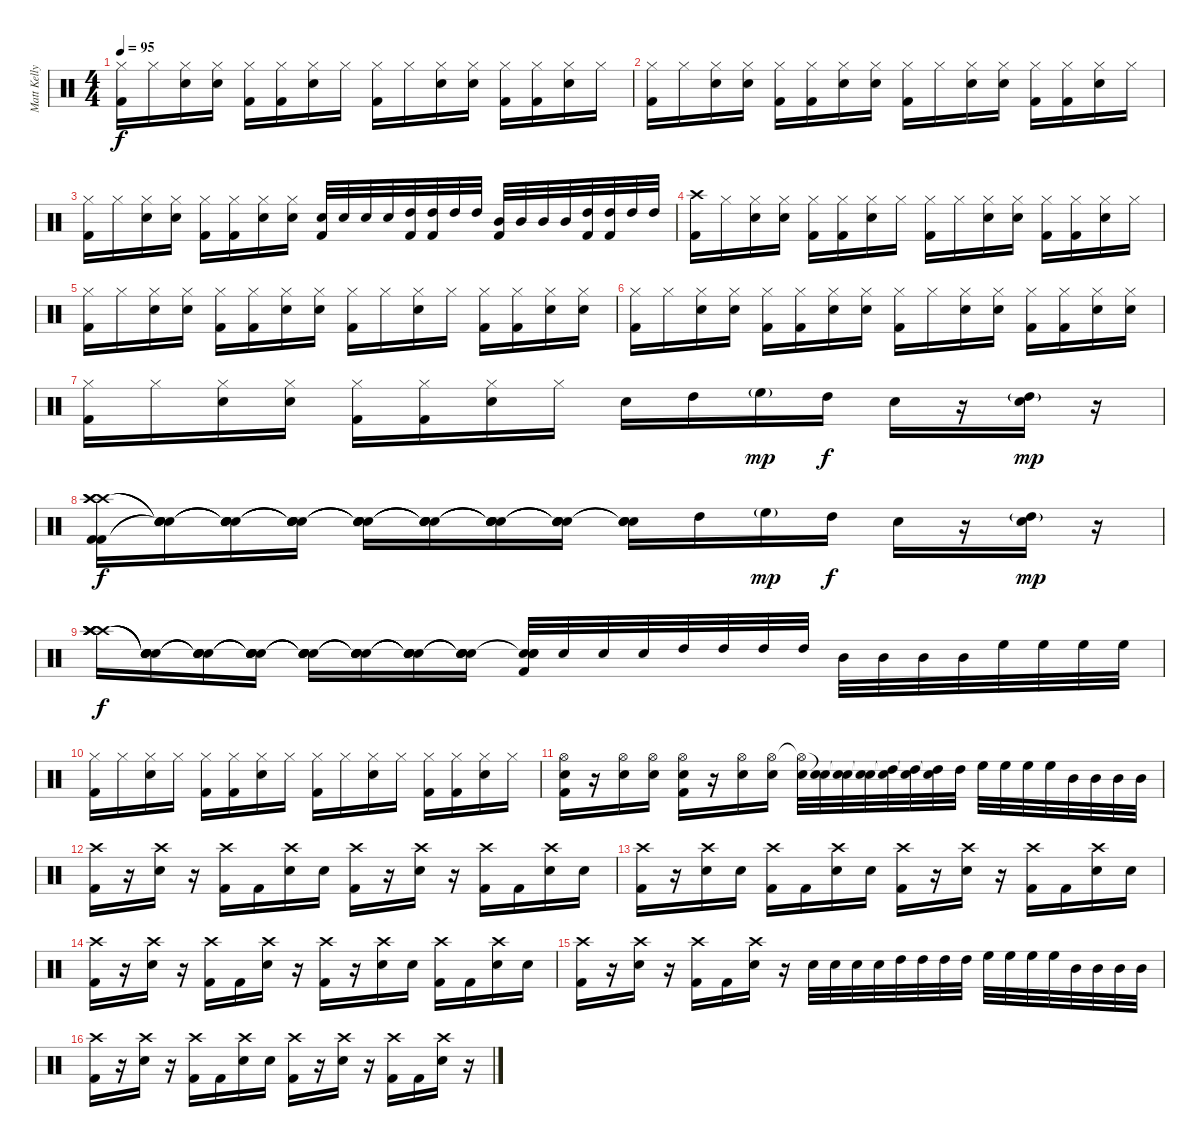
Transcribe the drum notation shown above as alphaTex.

\track ("Matt Kelly - Drums" "Matt Kelly") {instrument percussion}
\staff {score}
\articulation defaults
\ts (4 4)
\tempo 95
\clef neutral
\ks c
("Hi-Hat (closed)" "Kick (hit) 2").16{dy f} "Hi-Hat (closed)".16 ("Hi-Hat (closed)" "Electric Snare (hit)").16 ("Hi-Hat (closed)" "Electric Snare (hit)").16 ("Hi-Hat (closed)" "Kick (hit) 2").16 ("Hi-Hat (closed)" "Kick (hit) 2").16 ("Hi-Hat (closed)" "Electric Snare (hit)").16 "Hi-Hat (closed)".16 ("Hi-Hat (closed)" "Kick (hit) 2").16 "Hi-Hat (closed)".16 ("Hi-Hat (closed)" "Electric Snare (hit)").16 ("Hi-Hat (closed)" "Electric Snare (hit)").16 ("Hi-Hat (closed)" "Kick (hit) 2").16 ("Hi-Hat (closed)" "Kick (hit) 2").16 ("Hi-Hat (closed)" "Electric Snare (hit)").16 "Hi-Hat (closed)".16 |
("Hi-Hat (closed)" "Kick (hit) 2").16 "Hi-Hat (closed)".16 ("Hi-Hat (closed)" "Electric Snare (hit)").16 ("Hi-Hat (closed)" "Electric Snare (hit)").16 ("Hi-Hat (closed)" "Kick (hit) 2").16 ("Hi-Hat (closed)" "Kick (hit) 2").16 ("Hi-Hat (closed)" "Electric Snare (hit)").16 ("Hi-Hat (closed)" "Electric Snare (hit)").16 ("Hi-Hat (closed)" "Kick (hit) 2").16 "Hi-Hat (closed)".16 ("Hi-Hat (closed)" "Electric Snare (hit)").16 ("Hi-Hat (closed)" "Electric Snare (hit)").16 ("Hi-Hat (closed)" "Kick (hit) 2").16 ("Hi-Hat (closed)" "Kick (hit) 2").16 ("Hi-Hat (closed)" "Electric Snare (hit)").16 "Hi-Hat (closed)".16 |
("Hi-Hat (closed)" "Kick (hit) 2").16 "Hi-Hat (closed)".16 ("Hi-Hat (closed)" "Electric Snare (hit)").16 ("Hi-Hat (closed)" "Electric Snare (hit)").16 ("Hi-Hat (closed)" "Kick (hit) 2").16 ("Hi-Hat (closed)" "Kick (hit) 2").16 ("Hi-Hat (closed)" "Electric Snare (hit)").16 ("Hi-Hat (closed)" "Electric Snare (hit)").16 ("Electric Snare (hit)" "Kick (hit) 2").32 "Electric Snare (hit)".32 "Electric Snare (hit)".32 "Electric Snare (hit)".32 ("Kick (hit) 2" "High Tom (hit)").32 ("Kick (hit) 2" "High Tom (hit)").32 "High Tom (hit)".32 "High Tom (hit)".32 ("Kick (hit) 2" "Mid Tom (hit)").32 "Mid Tom (hit)".32 "Mid Tom (hit)".32 "Mid Tom (hit)".32 ("Kick (hit) 2" "High Tom (hit)").32 ("Kick (hit) 2" "High Tom (hit)").32 "High Tom (hit)".32 "High Tom (hit)".32 |
("Crash high (hit)" "Kick (hit) 2").16 "Hi-Hat (closed)".16 ("Hi-Hat (closed)" "Electric Snare (hit)").16 ("Hi-Hat (closed)" "Electric Snare (hit)").16 ("Hi-Hat (closed)" "Kick (hit) 2").16 ("Hi-Hat (closed)" "Kick (hit) 2").16 ("Hi-Hat (closed)" "Electric Snare (hit)").16 "Hi-Hat (closed)".16 ("Hi-Hat (closed)" "Kick (hit) 2").16 "Hi-Hat (closed)".16 ("Hi-Hat (closed)" "Electric Snare (hit)").16 ("Hi-Hat (closed)" "Electric Snare (hit)").16 ("Hi-Hat (closed)" "Kick (hit) 2").16 ("Hi-Hat (closed)" "Kick (hit) 2").16 ("Hi-Hat (closed)" "Electric Snare (hit)").16 "Hi-Hat (closed)".16 |
("Hi-Hat (closed)" "Kick (hit) 2").16 "Hi-Hat (closed)".16 ("Hi-Hat (closed)" "Electric Snare (hit)").16 ("Hi-Hat (closed)" "Electric Snare (hit)").16 ("Hi-Hat (closed)" "Kick (hit) 2").16 ("Hi-Hat (closed)" "Kick (hit) 2").16 ("Hi-Hat (closed)" "Electric Snare (hit)").16 ("Hi-Hat (closed)" "Electric Snare (hit)").16 ("Hi-Hat (closed)" "Kick (hit) 2").16 "Hi-Hat (closed)".16 ("Hi-Hat (closed)" "Electric Snare (hit)").16 "Hi-Hat (closed)".16 ("Hi-Hat (closed)" "Kick (hit) 2").16 ("Hi-Hat (closed)" "Kick (hit) 2").16 ("Hi-Hat (closed)" "Electric Snare (hit)").16 ("Hi-Hat (closed)" "Electric Snare (hit)").16 |
("Hi-Hat (closed)" "Kick (hit) 2").16 "Hi-Hat (closed)".16 ("Hi-Hat (closed)" "Electric Snare (hit)").16 ("Hi-Hat (closed)" "Electric Snare (hit)").16 ("Hi-Hat (closed)" "Kick (hit) 2").16 ("Hi-Hat (closed)" "Kick (hit) 2").16 ("Hi-Hat (closed)" "Electric Snare (hit)").16 ("Hi-Hat (closed)" "Electric Snare (hit)").16 ("Hi-Hat (closed)" "Kick (hit) 2").16 "Hi-Hat (closed)".16 ("Hi-Hat (closed)" "Electric Snare (hit)").16 ("Hi-Hat (closed)" "Electric Snare (hit)").16 ("Hi-Hat (closed)" "Kick (hit) 2").16 ("Hi-Hat (closed)" "Kick (hit) 2").16 ("Hi-Hat (closed)" "Electric Snare (hit)").16 ("Hi-Hat (closed)" "Electric Snare (hit)").16 |
("Hi-Hat (closed)" "Kick (hit) 2").16 "Hi-Hat (closed)".16 ("Hi-Hat (closed)" "Electric Snare (hit)").16 ("Hi-Hat (closed)" "Electric Snare (hit)").16 ("Hi-Hat (closed)" "Kick (hit) 2").16 ("Hi-Hat (closed)" "Kick (hit) 2").16 ("Hi-Hat (closed)" "Electric Snare (hit)").16 "Hi-Hat (closed)".16 "Electric Snare (hit)".16 "High Tom (hit)".16 "High Floor Tom (hit)"{g}.16{dy mp} "High Tom (hit)".16{dy f} "Electric Snare (hit)".16 r.16 ("Electric Snare (hit)" "High Tom (hit)"{g}).16{dy mp} r.16 |
("Crash high (hit)" "Crash high (hit)" "Crash high (hit)" "Kick (hit) 2" "Kick (hit) 2").16{dy f} ("Snare (hit)"{t} "Snare (hit)"{t} "Snare (hit)"{t} "Snare (hit)"{t} "Snare (hit)"{t}).16 ("Snare (hit)"{t} "Snare (hit)"{t} "Snare (hit)"{t} "Snare (hit)"{t} "Snare (hit)"{t}).16 ("Snare (hit)"{t} "Snare (hit)"{t} "Snare (hit)"{t} "Snare (hit)"{t} "Snare (hit)"{t}).16 ("Snare (hit)"{t} "Snare (hit)"{t} "Snare (hit)"{t} "Snare (hit)"{t} "Snare (hit)"{t}).16 ("Snare (hit)"{t} "Snare (hit)"{t} "Snare (hit)"{t} "Snare (hit)"{t} "Snare (hit)"{t}).16 ("Snare (hit)"{t} "Snare (hit)"{t} "Snare (hit)"{t} "Snare (hit)"{t} "Snare (hit)"{t}).16 ("Snare (hit)"{t} "Snare (hit)"{t} "Snare (hit)"{t} "Snare (hit)"{t} "Snare (hit)"{t}).16 ("Electric Snare (hit)" "Snare (hit)"{t} "Snare (hit)"{t} "Snare (hit)"{t}).16 "High Tom (hit)".16 "High Floor Tom (hit)"{g}.16{dy mp} "High Tom (hit)".16{dy f} "Electric Snare (hit)".16 r.16 ("Electric Snare (hit)" "High Tom (hit)"{g}).16{dy mp} r.16 |
("Crash high (hit)" "Crash high (hit)" "Crash high (hit)" "Crash high (hit)" "Crash high (hit)").16{dy f} ("Snare (hit)"{t} "Snare (hit)"{t} "Snare (hit)"{t} "Snare (hit)"{t} "Snare (hit)"{t}).16 ("Snare (hit)"{t} "Snare (hit)"{t} "Snare (hit)"{t} "Snare (hit)"{t} "Snare (hit)"{t}).16 ("Snare (hit)"{t} "Snare (hit)"{t} "Snare (hit)"{t} "Snare (hit)"{t} "Snare (hit)"{t}).16 ("Snare (hit)"{t} "Snare (hit)"{t} "Snare (hit)"{t} "Snare (hit)"{t} "Snare (hit)"{t}).16 ("Snare (hit)"{t} "Snare (hit)"{t} "Snare (hit)"{t} "Snare (hit)"{t} "Snare (hit)"{t}).16 ("Snare (hit)"{t} "Snare (hit)"{t} "Snare (hit)"{t} "Snare (hit)"{t} "Snare (hit)"{t}).16 ("Snare (hit)"{t} "Snare (hit)"{t} "Snare (hit)"{t} "Snare (hit)"{t} "Snare (hit)"{t}).16 ("Snare (hit)"{t} "Electric Snare (hit)" "Kick (hit) 2" "Snare (hit)"{t}).32 "Electric Snare (hit)".32 "Electric Snare (hit)".32 "Electric Snare (hit)".32 "High Tom (hit)".32 "High Tom (hit)".32 "High Tom (hit)".32 "High Tom (hit)".32 "Mid Tom (hit)".32 "Mid Tom (hit)".32 "Mid Tom (hit)".32 "Mid Tom (hit)".32 "High Floor Tom (hit)".32 "High Floor Tom (hit)".32 "High Floor Tom (hit)".32 "High Floor Tom (hit)".32 |
("Hi-Hat (closed)" "Kick (hit) 2").16 "Hi-Hat (closed)".16 ("Hi-Hat (closed)" "Electric Snare (hit)").16 "Hi-Hat (closed)".16 ("Hi-Hat (closed)" "Kick (hit) 2").16 ("Hi-Hat (closed)" "Kick (hit) 2").16 ("Hi-Hat (closed)" "Electric Snare (hit)").16 "Hi-Hat (closed)".16 ("Hi-Hat (closed)" "Kick (hit) 2").16 "Hi-Hat (closed)".16 ("Hi-Hat (closed)" "Electric Snare (hit)").16 "Hi-Hat (closed)".16 ("Hi-Hat (closed)" "Kick (hit) 2").16 ("Hi-Hat (closed)" "Kick (hit) 2").16 ("Hi-Hat (closed)" "Electric Snare (hit)").16 "Hi-Hat (closed)".16 |
("Hi-Hat (open)" "Electric Snare (hit)" "Kick (hit) 2").16 r.16 ("Hi-Hat (open)" "Electric Snare (hit)").16 ("Hi-Hat (open)" "Electric Snare (hit)").16 ("Hi-Hat (open)" "Electric Snare (hit)" "Kick (hit) 2").16 r.16 ("Hi-Hat (open)" "Electric Snare (hit)").16 ("Hi-Hat (open)" "Electric Snare (hit)").16 ("Hi-Hat (open)"{t} "Electric Snare (hit)").32 ("Snare (hit)"{t} "Electric Snare (hit)").32 ("Snare (hit)"{t} "Electric Snare (hit)").32 ("Snare (hit)"{t} "Electric Snare (hit)").32 ("Snare (hit)"{t} "High Tom (hit)").32 ("Snare (hit)"{t} "High Tom (hit)").32 ("Snare (hit)"{t} "High Tom (hit)").32 "High Tom (hit)".32 "High Floor Tom (hit)".32 "High Floor Tom (hit)".32 "High Floor Tom (hit)".32 "High Floor Tom (hit)".32 "Mid Tom (hit)".32 "Mid Tom (hit)".32 "Mid Tom (hit)".32 "Mid Tom (hit)".32 |
("Crash high (hit)" "Kick (hit) 2").16 r.16 ("Crash high (hit)" "Electric Snare (hit)").16 r.16 ("Crash high (hit)" "Kick (hit) 2").16 "Kick (hit) 2".16 ("Crash high (hit)" "Electric Snare (hit)").16 "Electric Snare (hit)".16 ("Crash high (hit)" "Kick (hit) 2").16 r.16 ("Crash high (hit)" "Electric Snare (hit)").16 r.16 ("Crash high (hit)" "Kick (hit) 2").16 "Kick (hit) 2".16 ("Crash high (hit)" "Electric Snare (hit)").16 "Electric Snare (hit)".16 |
("Crash high (hit)" "Kick (hit) 2").16 r.16 ("Crash high (hit)" "Electric Snare (hit)").16 "Electric Snare (hit)".16 ("Crash high (hit)" "Kick (hit) 2").16 "Kick (hit) 2".16 ("Crash high (hit)" "Electric Snare (hit)").16 "Electric Snare (hit)".16 ("Crash high (hit)" "Kick (hit) 2").16 r.16 ("Crash high (hit)" "Electric Snare (hit)").16 r.16 ("Crash high (hit)" "Kick (hit) 2").16 "Kick (hit) 2".16 ("Crash high (hit)" "Electric Snare (hit)").16 "Electric Snare (hit)".16 |
("Crash high (hit)" "Kick (hit) 2").16 r.16 ("Crash high (hit)" "Electric Snare (hit)").16 r.16 ("Crash high (hit)" "Kick (hit) 2").16 "Kick (hit) 2".16 ("Crash high (hit)" "Electric Snare (hit)").16 r.16 ("Crash high (hit)" "Kick (hit) 2").16 r.16 ("Crash high (hit)" "Electric Snare (hit)").16 "Electric Snare (hit)".16 ("Crash high (hit)" "Kick (hit) 2").16 "Kick (hit) 2".16 ("Crash high (hit)" "Electric Snare (hit)").16 "Electric Snare (hit)".16 |
("Crash high (hit)" "Kick (hit) 2").16 r.16 ("Crash high (hit)" "Electric Snare (hit)").16 r.16 ("Crash high (hit)" "Kick (hit) 2").16 "Kick (hit) 2".16 ("Crash high (hit)" "Electric Snare (hit)").16 r.16 "Electric Snare (hit)".32 "Electric Snare (hit)".32 "Electric Snare (hit)".32 "Electric Snare (hit)".32 "High Tom (hit)".32 "High Tom (hit)".32 "High Tom (hit)".32 "High Tom (hit)".32 "High Floor Tom (hit)".32 "High Floor Tom (hit)".32 "High Floor Tom (hit)".32 "High Floor Tom (hit)".32 "Mid Tom (hit)".32 "Mid Tom (hit)".32 "Mid Tom (hit)".32 "Mid Tom (hit)".32 |
("Crash high (hit)" "Kick (hit) 2").16 r.16 ("Crash high (hit)" "Electric Snare (hit)").16 r.16 ("Crash high (hit)" "Kick (hit) 2").16 "Kick (hit) 2".16 ("Crash high (hit)" "Electric Snare (hit)").16 "Electric Snare (hit)".16 ("Crash high (hit)" "Kick (hit) 2").16 r.16 ("Crash high (hit)" "Electric Snare (hit)").16 r.16 ("Crash high (hit)" "Kick (hit) 2").16 "Kick (hit) 2".16 ("Crash high (hit)" "Electric Snare (hit)").16 r.16
